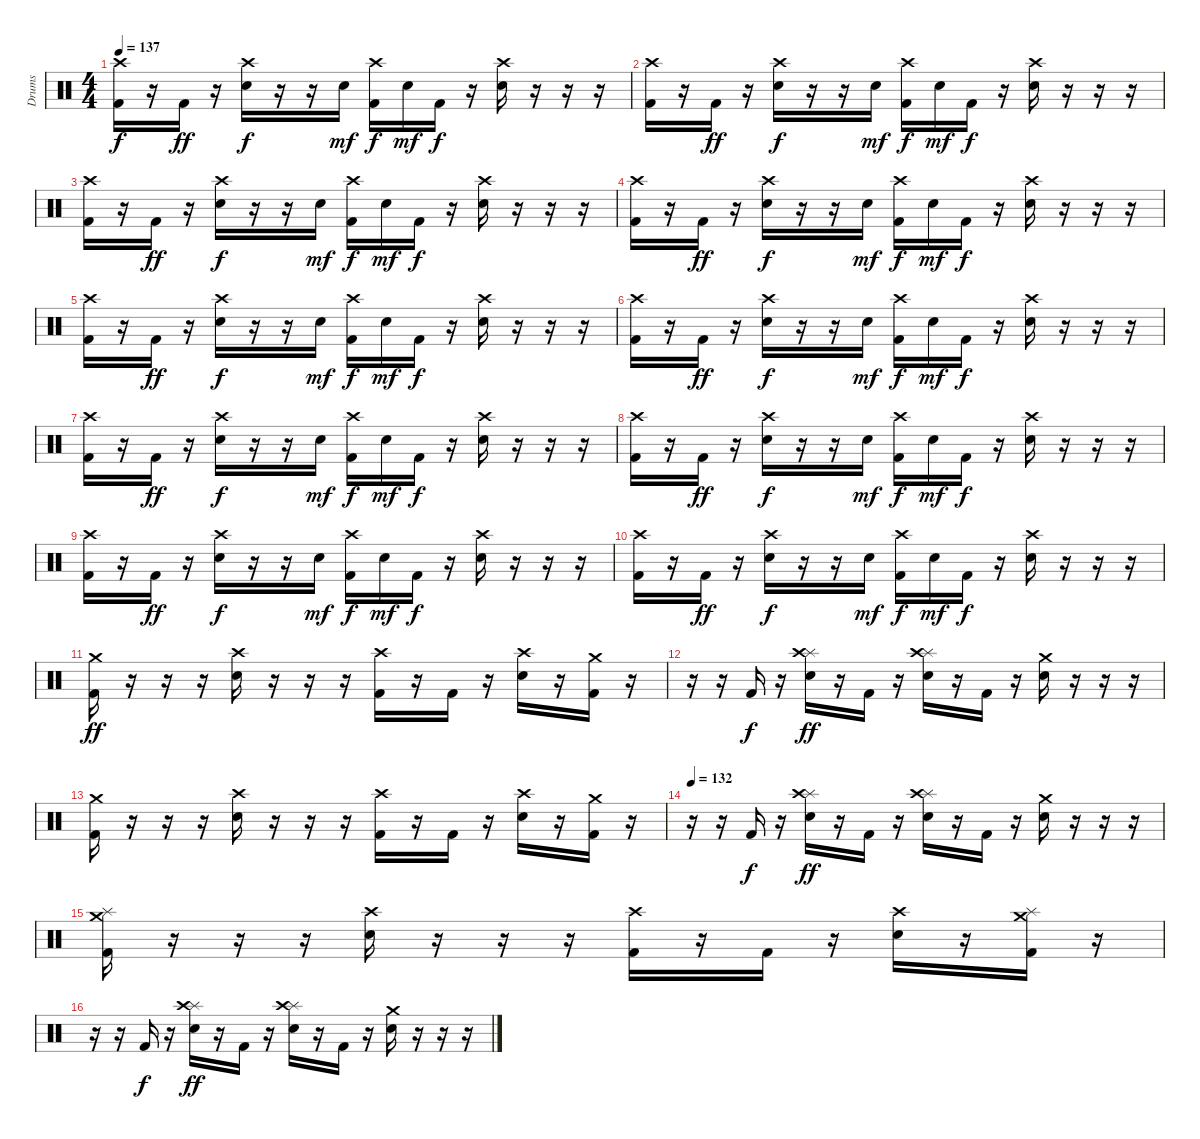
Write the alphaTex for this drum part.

\track ("Drums" "Drums") {instrument percussion}
\staff {score}
\articulation defaults
\ts (4 4)
\tempo 137
\clef neutral
\ks c
("Crash high (hit)" "Kick (hit) 2").16{dy f} r.16 "Kick (hit) 2".16{dy ff} r.16 ("Crash high (hit)" "Electric Snare (hit)").16{dy f} r.16 r.16 "Electric Snare (hit)".16{dy mf} ("Crash high (hit)" "Kick (hit) 2").16{dy f} "Electric Snare (hit)".16{dy mf} "Kick (hit) 2".16{dy f} r.16 ("Crash high (hit)" "Electric Snare (hit)").16 r.16 r.16 r.16 |
("Crash high (hit)" "Kick (hit) 2").16 r.16 "Kick (hit) 2".16{dy ff} r.16 ("Crash high (hit)" "Electric Snare (hit)").16{dy f} r.16 r.16 "Electric Snare (hit)".16{dy mf} ("Crash high (hit)" "Kick (hit) 2").16{dy f} "Electric Snare (hit)".16{dy mf} "Kick (hit) 2".16{dy f} r.16 ("Crash high (hit)" "Electric Snare (hit)").16 r.16 r.16 r.16 |
("Crash high (hit)" "Kick (hit) 2").16 r.16 "Kick (hit) 2".16{dy ff} r.16 ("Crash high (hit)" "Electric Snare (hit)").16{dy f} r.16 r.16 "Electric Snare (hit)".16{dy mf} ("Crash high (hit)" "Kick (hit) 2").16{dy f} "Electric Snare (hit)".16{dy mf} "Kick (hit) 2".16{dy f} r.16 ("Crash high (hit)" "Electric Snare (hit)").16 r.16 r.16 r.16 |
("Crash high (hit)" "Kick (hit) 2").16 r.16 "Kick (hit) 2".16{dy ff} r.16 ("Crash high (hit)" "Electric Snare (hit)").16{dy f} r.16 r.16 "Electric Snare (hit)".16{dy mf} ("Crash high (hit)" "Kick (hit) 2").16{dy f} "Electric Snare (hit)".16{dy mf} "Kick (hit) 2".16{dy f} r.16 ("Crash high (hit)" "Electric Snare (hit)").16 r.16 r.16 r.16 |
("Crash high (hit)" "Kick (hit) 2").16 r.16 "Kick (hit) 2".16{dy ff} r.16 ("Crash high (hit)" "Electric Snare (hit)").16{dy f} r.16 r.16 "Electric Snare (hit)".16{dy mf} ("Crash high (hit)" "Kick (hit) 2").16{dy f} "Electric Snare (hit)".16{dy mf} "Kick (hit) 2".16{dy f} r.16 ("Crash high (hit)" "Electric Snare (hit)").16 r.16 r.16 r.16 |
("Crash high (hit)" "Kick (hit) 2").16 r.16 "Kick (hit) 2".16{dy ff} r.16 ("Crash high (hit)" "Electric Snare (hit)").16{dy f} r.16 r.16 "Electric Snare (hit)".16{dy mf} ("Crash high (hit)" "Kick (hit) 2").16{dy f} "Electric Snare (hit)".16{dy mf} "Kick (hit) 2".16{dy f} r.16 ("Crash high (hit)" "Electric Snare (hit)").16 r.16 r.16 r.16 |
("Crash high (hit)" "Kick (hit) 2").16 r.16 "Kick (hit) 2".16{dy ff} r.16 ("Crash high (hit)" "Electric Snare (hit)").16{dy f} r.16 r.16 "Electric Snare (hit)".16{dy mf} ("Crash high (hit)" "Kick (hit) 2").16{dy f} "Electric Snare (hit)".16{dy mf} "Kick (hit) 2".16{dy f} r.16 ("Crash high (hit)" "Electric Snare (hit)").16 r.16 r.16 r.16 |
("Crash high (hit)" "Kick (hit) 2").16 r.16 "Kick (hit) 2".16{dy ff} r.16 ("Crash high (hit)" "Electric Snare (hit)").16{dy f} r.16 r.16 "Electric Snare (hit)".16{dy mf} ("Crash high (hit)" "Kick (hit) 2").16{dy f} "Electric Snare (hit)".16{dy mf} "Kick (hit) 2".16{dy f} r.16 ("Crash high (hit)" "Electric Snare (hit)").16 r.16 r.16 r.16 |
("Crash high (hit)" "Kick (hit) 2").16 r.16 "Kick (hit) 2".16{dy ff} r.16 ("Crash high (hit)" "Electric Snare (hit)").16{dy f} r.16 r.16 "Electric Snare (hit)".16{dy mf} ("Crash high (hit)" "Kick (hit) 2").16{dy f} "Electric Snare (hit)".16{dy mf} "Kick (hit) 2".16{dy f} r.16 ("Crash high (hit)" "Electric Snare (hit)").16 r.16 r.16 r.16 |
("Crash high (hit)" "Kick (hit) 2").16 r.16 "Kick (hit) 2".16{dy ff} r.16 ("Crash high (hit)" "Electric Snare (hit)").16{dy f} r.16 r.16 "Electric Snare (hit)".16{dy mf} ("Crash high (hit)" "Kick (hit) 2").16{dy f} "Electric Snare (hit)".16{dy mf} "Kick (hit) 2".16{dy f} r.16 ("Crash high (hit)" "Electric Snare (hit)").16 r.16 r.16 r.16 |
("Crash medium (hit)" "Kick (hit) 2").16{dy ff} r.16 r.16 r.16 ("Crash high (hit)" "Electric Snare (hit)").16 r.16 r.16 r.16 ("Crash high (hit)" "Kick (hit) 2").16 r.16 "Kick (hit) 2".16 r.16 ("Crash high (hit)" "Electric Snare (hit)").16 r.16 ("Crash medium (hit)" "Kick (hit) 2").16 r.16 |
r.16 r.16 "Kick (hit) 2".16{dy f} r.16 ("Splash (hit)" "Crash high (hit)" "Electric Snare (hit)").16{dy ff} r.16 "Kick (hit) 2".16 r.16 ("Splash (hit)" "Crash high (hit)" "Electric Snare (hit)").16 r.16 "Kick (hit) 2".16 r.16 ("Crash medium (hit)" "Electric Snare (hit)").16 r.16 r.16 r.16 |
("Crash medium (hit)" "Kick (hit) 2").16 r.16 r.16 r.16 ("Crash high (hit)" "Electric Snare (hit)").16 r.16 r.16 r.16 ("Crash high (hit)" "Kick (hit) 2").16 r.16 "Kick (hit) 2".16 r.16 ("Crash high (hit)" "Electric Snare (hit)").16 r.16 ("Crash medium (hit)" "Kick (hit) 2").16 r.16 |
\tempo 132
r.16 r.16 "Kick (hit) 2".16{dy f} r.16 ("Splash (hit)" "Crash high (hit)" "Electric Snare (hit)").16{dy ff} r.16 "Kick (hit) 2".16 r.16 ("Splash (hit)" "Crash high (hit)" "Electric Snare (hit)").16 r.16 "Kick (hit) 2".16 r.16 ("Crash medium (hit)" "Electric Snare (hit)").16 r.16 r.16 r.16 |
("Crash medium (hit)" "Splash (hit)" "Kick (hit) 2").16 r.16 r.16 r.16 ("Crash high (hit)" "Electric Snare (hit)").16 r.16 r.16 r.16 ("Crash high (hit)" "Kick (hit) 2").16 r.16 "Kick (hit) 2".16 r.16 ("Crash high (hit)" "Electric Snare (hit)").16 r.16 ("Crash medium (hit)" "Splash (hit)" "Kick (hit) 2").16 r.16 |
r.16 r.16 "Kick (hit) 2".16{dy f} r.16 ("Splash (hit)" "Crash high (hit)" "Electric Snare (hit)").16{dy ff} r.16 "Kick (hit) 2".16 r.16 ("Splash (hit)" "Crash high (hit)" "Electric Snare (hit)").16 r.16 "Kick (hit) 2".16 r.16 ("Crash medium (hit)" "Electric Snare (hit)").16 r.16 r.16 r.16
